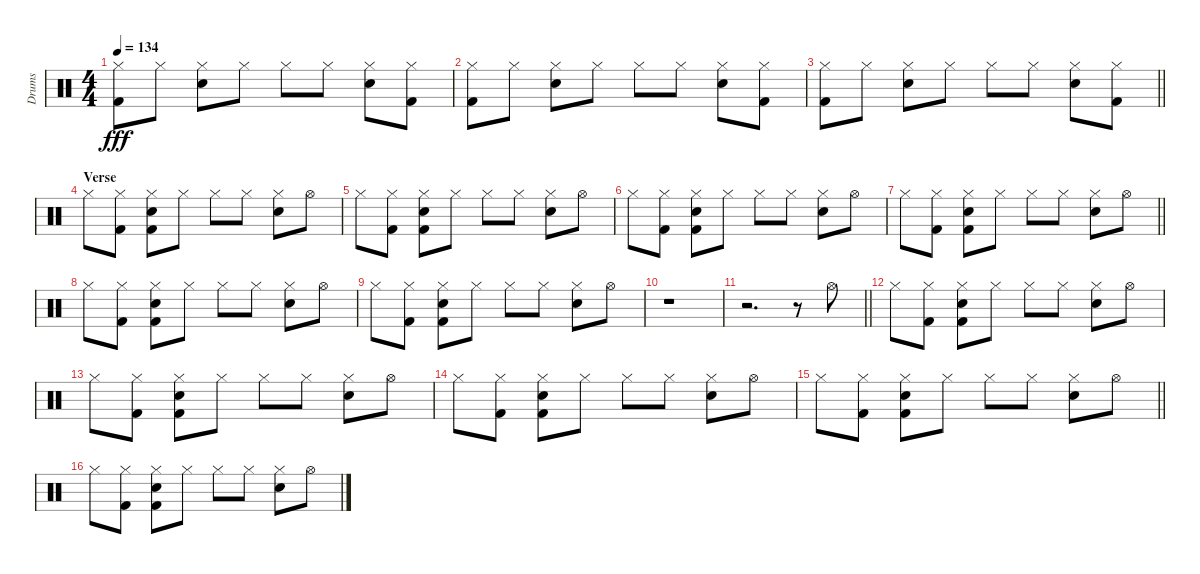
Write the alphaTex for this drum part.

\track ("Drums" "Drums") {instrument percussion}
\staff {score}
\articulation defaults
\ts (4 4)
\tempo 134
\clef neutral
\ks c
("Hi-Hat (closed)" "Kick (hit) 2").8{dy fff} "Hi-Hat (closed)".8 ("Hi-Hat (closed)" "Electric Snare (hit)").8 "Hi-Hat (closed)".8 "Hi-Hat (closed)".8 "Hi-Hat (closed)".8 ("Hi-Hat (closed)" "Electric Snare (hit)").8 ("Hi-Hat (closed)" "Kick (hit) 2").8 |
("Hi-Hat (closed)" "Kick (hit) 2").8 "Hi-Hat (closed)".8 ("Hi-Hat (closed)" "Electric Snare (hit)").8 "Hi-Hat (closed)".8 "Hi-Hat (closed)".8 "Hi-Hat (closed)".8 ("Hi-Hat (closed)" "Electric Snare (hit)").8 ("Hi-Hat (closed)" "Kick (hit) 2").8 |
\barLineRight lightlight
("Hi-Hat (closed)" "Kick (hit) 2").8 "Hi-Hat (closed)".8 ("Hi-Hat (closed)" "Electric Snare (hit)").8 "Hi-Hat (closed)".8 "Hi-Hat (closed)".8 "Hi-Hat (closed)".8 ("Hi-Hat (closed)" "Electric Snare (hit)").8 ("Hi-Hat (closed)" "Kick (hit) 2").8 |
\section ("" "Verse")
"Hi-Hat (closed)".8 ("Hi-Hat (closed)" "Kick (hit) 2").8 ("Hi-Hat (closed)" "Electric Snare (hit)" "Kick (hit) 2").8 "Hi-Hat (closed)".8 "Hi-Hat (closed)".8 "Hi-Hat (closed)".8 ("Hi-Hat (closed)" "Electric Snare (hit)").8 "Hi-Hat (open)".8 |
"Hi-Hat (closed)".8 ("Hi-Hat (closed)" "Kick (hit) 2").8 ("Hi-Hat (closed)" "Electric Snare (hit)" "Kick (hit) 2").8 "Hi-Hat (closed)".8 "Hi-Hat (closed)".8 "Hi-Hat (closed)".8 ("Hi-Hat (closed)" "Electric Snare (hit)").8 "Hi-Hat (open)".8 |
"Hi-Hat (closed)".8 ("Hi-Hat (closed)" "Kick (hit) 2").8 ("Hi-Hat (closed)" "Electric Snare (hit)" "Kick (hit) 2").8 "Hi-Hat (closed)".8 "Hi-Hat (closed)".8 "Hi-Hat (closed)".8 ("Hi-Hat (closed)" "Electric Snare (hit)").8 "Hi-Hat (open)".8 |
\barLineRight lightlight "Hi-Hat (closed)".8
("Hi-Hat (closed)" "Kick (hit) 2").8 ("Hi-Hat (closed)" "Electric Snare (hit)" "Kick (hit) 2").8 "Hi-Hat (closed)".8 "Hi-Hat (closed)".8 "Hi-Hat (closed)".8 ("Hi-Hat (closed)" "Electric Snare (hit)").8 "Hi-Hat (open)".8 |
"Hi-Hat (closed)".8 ("Hi-Hat (closed)" "Kick (hit) 2").8 ("Hi-Hat (closed)" "Electric Snare (hit)" "Kick (hit) 2").8 "Hi-Hat (closed)".8 "Hi-Hat (closed)".8 "Hi-Hat (closed)".8 ("Hi-Hat (closed)" "Electric Snare (hit)").8 "Hi-Hat (open)".8 |
"Hi-Hat (closed)".8 ("Hi-Hat (closed)" "Kick (hit) 2").8 ("Hi-Hat (closed)" "Electric Snare (hit)" "Kick (hit) 2").8 "Hi-Hat (closed)".8 "Hi-Hat (closed)".8 "Hi-Hat (closed)".8 ("Hi-Hat (closed)" "Electric Snare (hit)").8 "Hi-Hat (open)".8 |
r.1 |
\barLineRight lightlight
r.2{d} r.8 "Hi-Hat (open)".8 |
"Hi-Hat (closed)".8 ("Hi-Hat (closed)" "Kick (hit) 2").8 ("Hi-Hat (closed)" "Electric Snare (hit)" "Kick (hit) 2").8 "Hi-Hat (closed)".8 "Hi-Hat (closed)".8 "Hi-Hat (closed)".8 ("Hi-Hat (closed)" "Electric Snare (hit)").8 "Hi-Hat (open)".8 |
"Hi-Hat (closed)".8 ("Hi-Hat (closed)" "Kick (hit) 2").8 ("Hi-Hat (closed)" "Electric Snare (hit)" "Kick (hit) 2").8 "Hi-Hat (closed)".8 "Hi-Hat (closed)".8 "Hi-Hat (closed)".8 ("Hi-Hat (closed)" "Electric Snare (hit)").8 "Hi-Hat (open)".8 |
"Hi-Hat (closed)".8 ("Hi-Hat (closed)" "Kick (hit) 2").8 ("Hi-Hat (closed)" "Electric Snare (hit)" "Kick (hit) 2").8 "Hi-Hat (closed)".8 "Hi-Hat (closed)".8 "Hi-Hat (closed)".8 ("Hi-Hat (closed)" "Electric Snare (hit)").8 "Hi-Hat (open)".8 |
\barLineRight lightlight "Hi-Hat (closed)".8
("Hi-Hat (closed)" "Kick (hit) 2").8 ("Hi-Hat (closed)" "Electric Snare (hit)" "Kick (hit) 2").8 "Hi-Hat (closed)".8 "Hi-Hat (closed)".8 "Hi-Hat (closed)".8 ("Hi-Hat (closed)" "Electric Snare (hit)").8 "Hi-Hat (open)".8 |
"Hi-Hat (closed)".8 ("Hi-Hat (closed)" "Kick (hit) 2").8 ("Hi-Hat (closed)" "Electric Snare (hit)" "Kick (hit) 2").8 "Hi-Hat (closed)".8 "Hi-Hat (closed)".8 "Hi-Hat (closed)".8 ("Hi-Hat (closed)" "Electric Snare (hit)").8 "Hi-Hat (open)".8
